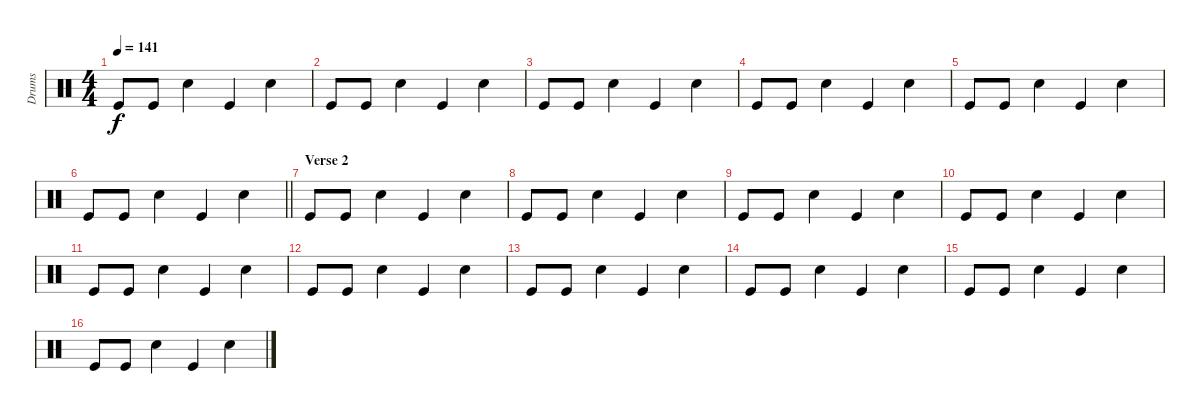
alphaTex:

\track ("Drums" "Drums") {instrument percussion}
\staff {score}
\articulation defaults
\ts (4 4)
\tempo 141
\clef neutral
\ks c "Kick (hit)".8{dy f} "Kick (hit)".8 "Snare (hit) 2".4 "Kick (hit)".4 "Snare (hit) 2".4
|
"Kick (hit)".8 "Kick (hit)".8 "Snare (hit) 2".4 "Kick (hit)".4 "Snare (hit) 2".4 |
"Kick (hit)".8 "Kick (hit)".8 "Snare (hit) 2".4 "Kick (hit)".4 "Snare (hit) 2".4 |
"Kick (hit)".8 "Kick (hit)".8 "Snare (hit) 2".4 "Kick (hit)".4 "Snare (hit) 2".4 |
"Kick (hit)".8 "Kick (hit)".8 "Snare (hit) 2".4 "Kick (hit)".4 "Snare (hit) 2".4 |
\barLineRight lightlight "Kick (hit)".8 "Kick (hit)".8 "Snare (hit) 2".4 "Kick (hit)".4 "Snare (hit) 2".4
|
\section ("" "Verse 2")
"Kick (hit)".8 "Kick (hit)".8 "Snare (hit) 2".4 "Kick (hit)".4 "Snare (hit) 2".4 |
"Kick (hit)".8 "Kick (hit)".8 "Snare (hit) 2".4 "Kick (hit)".4 "Snare (hit) 2".4 |
"Kick (hit)".8 "Kick (hit)".8 "Snare (hit) 2".4 "Kick (hit)".4 "Snare (hit) 2".4 |
"Kick (hit)".8 "Kick (hit)".8 "Snare (hit) 2".4 "Kick (hit)".4 "Snare (hit) 2".4 |
"Kick (hit)".8 "Kick (hit)".8 "Snare (hit) 2".4 "Kick (hit)".4 "Snare (hit) 2".4 |
"Kick (hit)".8 "Kick (hit)".8 "Snare (hit) 2".4 "Kick (hit)".4 "Snare (hit) 2".4 |
"Kick (hit)".8 "Kick (hit)".8 "Snare (hit) 2".4 "Kick (hit)".4 "Snare (hit) 2".4 |
"Kick (hit)".8 "Kick (hit)".8 "Snare (hit) 2".4 "Kick (hit)".4 "Snare (hit) 2".4 |
"Kick (hit)".8 "Kick (hit)".8 "Snare (hit) 2".4 "Kick (hit)".4 "Snare (hit) 2".4 |
"Kick (hit)".8 "Kick (hit)".8 "Snare (hit) 2".4 "Kick (hit)".4 "Snare (hit) 2".4
